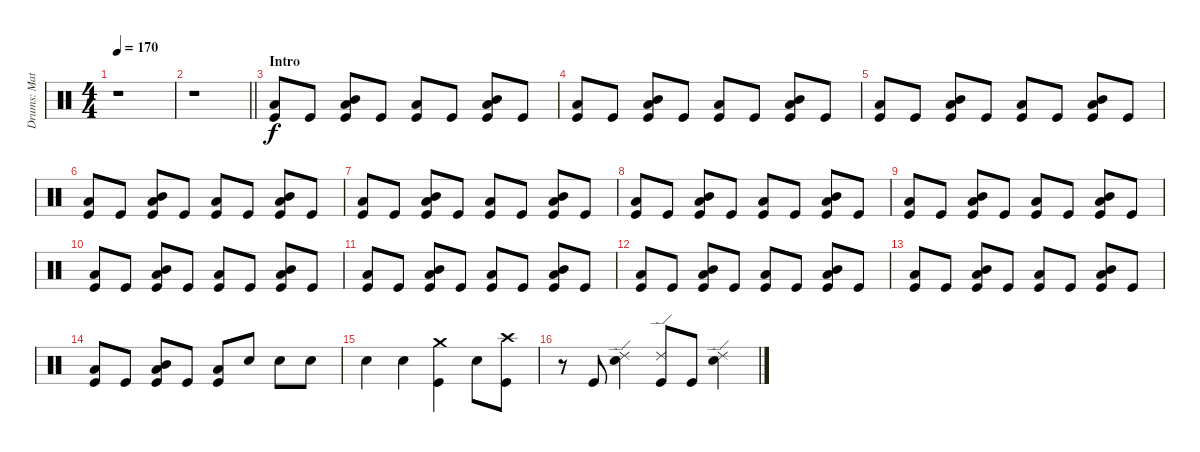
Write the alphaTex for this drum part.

\track ("Drums: Matt" "Drums: Mat") {instrument percussion}
\staff {score}
\articulation defaults
\ts (4 4)
\tempo 170
\clef neutral
\ks c
r.1{dy f} |
\barLineRight lightlight
r.1 |
\section ("" "Intro")
("Low Floor Tom (hit)" "Kick (hit)").8 "Kick (hit)".8 ("Low Floor Tom (hit)" "Mid Tom (hit)" "Kick (hit)").8 "Kick (hit)".8 ("Low Floor Tom (hit)" "Kick (hit)").8 "Kick (hit)".8 ("Low Floor Tom (hit)" "Kick (hit)" "Mid Tom (hit)").8 "Kick (hit)".8 |
("Low Floor Tom (hit)" "Kick (hit)").8 "Kick (hit)".8 ("Low Floor Tom (hit)" "Mid Tom (hit)" "Kick (hit)").8 "Kick (hit)".8 ("Low Floor Tom (hit)" "Kick (hit)").8 "Kick (hit)".8 ("Mid Tom (hit)" "Low Floor Tom (hit)" "Kick (hit)").8 "Kick (hit)".8 |
("Low Floor Tom (hit)" "Kick (hit)").8 "Kick (hit)".8 ("Low Floor Tom (hit)" "Mid Tom (hit)" "Kick (hit)").8 "Kick (hit)".8 ("Low Floor Tom (hit)" "Kick (hit)").8 "Kick (hit)".8 ("Mid Tom (hit)" "Low Floor Tom (hit)" "Kick (hit)").8 "Kick (hit)".8 |
("Low Floor Tom (hit)" "Kick (hit)").8 "Kick (hit)".8 ("Low Floor Tom (hit)" "Mid Tom (hit)" "Kick (hit)").8 "Kick (hit)".8 ("Low Floor Tom (hit)" "Kick (hit)").8 "Kick (hit)".8 ("Mid Tom (hit)" "Low Floor Tom (hit)" "Kick (hit)").8 "Kick (hit)".8 |
("Kick (hit)" "Low Floor Tom (hit)").8 "Kick (hit)".8 ("Low Floor Tom (hit)" "Kick (hit)" "Mid Tom (hit)").8 "Kick (hit)".8 ("Kick (hit)" "Low Floor Tom (hit)").8 "Kick (hit)".8 ("Kick (hit)" "Low Floor Tom (hit)" "Mid Tom (hit)").8 "Kick (hit)".8 |
("Kick (hit)" "Low Floor Tom (hit)").8 "Kick (hit)".8 ("Low Floor Tom (hit)" "Mid Tom (hit)" "Kick (hit)").8 "Kick (hit)".8 ("Kick (hit)" "Low Floor Tom (hit)").8 "Kick (hit)".8 ("Kick (hit)" "Low Floor Tom (hit)" "Mid Tom (hit)").8 "Kick (hit)".8 |
("Kick (hit)" "Low Floor Tom (hit)").8 "Kick (hit)".8 ("Mid Tom (hit)" "Kick (hit)" "Low Floor Tom (hit)").8 "Kick (hit)".8 ("Low Floor Tom (hit)" "Kick (hit)").8 "Kick (hit)".8 ("Kick (hit)" "Mid Tom (hit)" "Low Floor Tom (hit)").8 "Kick (hit)".8 |
("Low Floor Tom (hit)" "Kick (hit)").8 "Kick (hit)".8 ("Kick (hit)" "Mid Tom (hit)" "Low Floor Tom (hit)").8 "Kick (hit)".8 ("Low Floor Tom (hit)" "Kick (hit)").8 "Kick (hit)".8 ("Mid Tom (hit)" "Kick (hit)" "Low Floor Tom (hit)").8 "Kick (hit)".8 |
("Kick (hit)" "Low Floor Tom (hit)").8 "Kick (hit)".8 ("Low Floor Tom (hit)" "Mid Tom (hit)" "Kick (hit)").8 "Kick (hit)".8 ("Kick (hit)" "Low Floor Tom (hit)").8 "Kick (hit)".8 ("Low Floor Tom (hit)" "Kick (hit)" "Mid Tom (hit)").8 "Kick (hit)".8 |
("Kick (hit)" "Low Floor Tom (hit)").8 "Kick (hit)".8 ("Low Floor Tom (hit)" "Mid Tom (hit)" "Kick (hit)").8 "Kick (hit)".8 ("Low Floor Tom (hit)" "Kick (hit)").8 "Kick (hit)".8 ("Mid Tom (hit)" "Kick (hit)" "Low Floor Tom (hit)").8 "Kick (hit)".8 |
("Low Floor Tom (hit)" "Kick (hit)").8 "Kick (hit)".8 ("Low Floor Tom (hit)" "Kick (hit)" "Mid Tom (hit)").8 "Kick (hit)".8 ("Kick (hit)" "Low Floor Tom (hit)").8 "Kick (hit)".8 ("Mid Tom (hit)" "Kick (hit)" "Low Floor Tom (hit)").8 "Kick (hit)".8 |
("Low Floor Tom (hit)" "Kick (hit)").8 "Kick (hit)".8 ("Low Floor Tom (hit)" "Kick (hit)" "Mid Tom (hit)").8 "Kick (hit)".8 ("Kick (hit)" "Low Floor Tom (hit)").8 "Snare (hit) 2".8 "Snare (hit) 2".8 "Snare (hit) 2".8 |
"Snare (hit) 2".4 "Snare (hit) 2".4 ("Crash medium (hit)" "Kick (hit)").4 "Snare (hit) 2".8 ("Crash high (hit)" "Kick (hit)").8 |
r.8 "Kick (hit)".8 ("Snare (hit) 2" "Ride (edge) 2").4 ("Kick (hit)" "Ride (edge) 2").8 "Kick (hit)".8 ("Snare (hit) 2" "Ride (edge) 2").4
